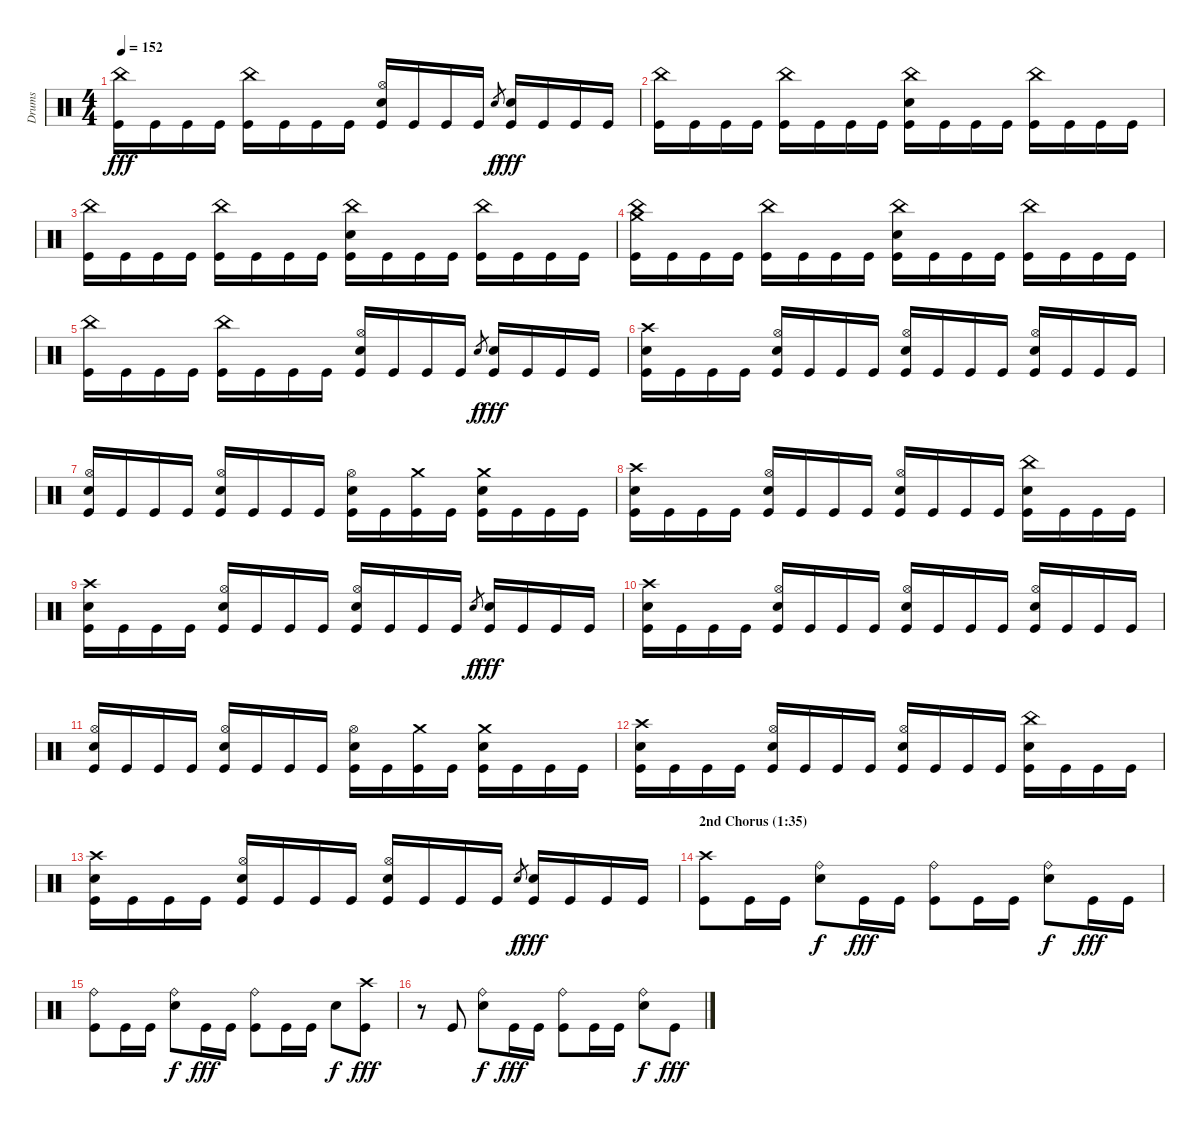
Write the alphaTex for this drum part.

\track ("Drums" "Drums") {instrument percussion}
\staff {score}
\articulation defaults
\ts (4 4)
\tempo 152
\clef neutral
\ks c
("China (hit)" "Kick (hit)").16{dy fff} "Kick (hit)".16 "Kick (hit)".16 "Kick (hit)".16 ("China (hit)" "Kick (hit)").16 "Kick (hit)".16 "Kick (hit)".16 "Kick (hit)".16 ("Hi-Hat (open)" "Snare (hit) 2" "Kick (hit)").16 "Kick (hit)".16 "Kick (hit)".16 "Kick (hit)".16 "Snare (hit) 2".8{gr dy f} ("Snare (hit) 2" "Kick (hit)").16{dy fff} "Kick (hit)".16 "Kick (hit)".16 "Kick (hit)".16 |
("China (hit)" "Kick (hit)").16 "Kick (hit)".16 "Kick (hit)".16 "Kick (hit)".16 ("China (hit)" "Kick (hit)").16 "Kick (hit)".16 "Kick (hit)".16 "Kick (hit)".16 ("China (hit)" "Snare (hit) 2" "Kick (hit)").16 "Kick (hit)".16 "Kick (hit)".16 "Kick (hit)".16 ("China (hit)" "Kick (hit)").16 "Kick (hit)".16 "Kick (hit)".16 "Kick (hit)".16 |
("China (hit)" "Kick (hit)").16 "Kick (hit)".16 "Kick (hit)".16 "Kick (hit)".16 ("China (hit)" "Kick (hit)").16 "Kick (hit)".16 "Kick (hit)".16 "Kick (hit)".16 ("China (hit)" "Snare (hit) 2" "Kick (hit)").16 "Kick (hit)".16 "Kick (hit)".16 "Kick (hit)".16 ("China (hit)" "Kick (hit)").16 "Kick (hit)".16 "Kick (hit)".16 "Kick (hit)".16 |
("China (hit)" "Crash medium (hit)" "Kick (hit)").16 "Kick (hit)".16 "Kick (hit)".16 "Kick (hit)".16 ("China (hit)" "Kick (hit)").16 "Kick (hit)".16 "Kick (hit)".16 "Kick (hit)".16 ("China (hit)" "Snare (hit) 2" "Kick (hit)").16 "Kick (hit)".16 "Kick (hit)".16 "Kick (hit)".16 ("China (hit)" "Kick (hit)").16 "Kick (hit)".16 "Kick (hit)".16 "Kick (hit)".16 |
("China (hit)" "Kick (hit)").16 "Kick (hit)".16 "Kick (hit)".16 "Kick (hit)".16 ("China (hit)" "Kick (hit)").16 "Kick (hit)".16 "Kick (hit)".16 "Kick (hit)".16 ("Hi-Hat (open)" "Snare (hit) 2" "Kick (hit)").16 "Kick (hit)".16 "Kick (hit)".16 "Kick (hit)".16 "Snare (hit) 2".8{gr dy f} ("Snare (hit) 2" "Kick (hit)").16{dy fff} "Kick (hit)".16 "Kick (hit)".16 "Kick (hit)".16 |
("Crash high (hit)" "Snare (hit) 2" "Kick (hit)").16 "Kick (hit)".16 "Kick (hit)".16 "Kick (hit)".16 ("Hi-Hat (open)" "Snare (hit) 2" "Kick (hit)").16 "Kick (hit)".16 "Kick (hit)".16 "Kick (hit)".16 ("Hi-Hat (open)" "Snare (hit) 2" "Kick (hit)").16 "Kick (hit)".16 "Kick (hit)".16 "Kick (hit)".16 ("Hi-Hat (open)" "Snare (hit) 2" "Kick (hit)").16 "Kick (hit)".16 "Kick (hit)".16 "Kick (hit)".16 |
("Hi-Hat (open)" "Snare (hit) 2" "Kick (hit)").16 "Kick (hit)".16 "Kick (hit)".16 "Kick (hit)".16 ("Hi-Hat (open)" "Snare (hit) 2" "Kick (hit)").16 "Kick (hit)".16 "Kick (hit)".16 "Kick (hit)".16 ("Hi-Hat (open)" "Snare (hit) 2" "Kick (hit)").16 "Kick (hit)".16 ("Crash medium (hit)" "Kick (hit)").16 "Kick (hit)".16 ("Crash medium (hit)" "Snare (hit) 2" "Kick (hit)").16 "Kick (hit)".16 "Kick (hit)".16 "Kick (hit)".16 |
("Crash high (hit)" "Snare (hit) 2" "Kick (hit)").16 "Kick (hit)".16 "Kick (hit)".16 "Kick (hit)".16 ("Hi-Hat (open)" "Snare (hit) 2" "Kick (hit)").16 "Kick (hit)".16 "Kick (hit)".16 "Kick (hit)".16 ("Hi-Hat (open)" "Snare (hit) 2" "Kick (hit)").16 "Kick (hit)".16 "Kick (hit)".16 "Kick (hit)".16 ("China (hit)" "Snare (hit) 2" "Kick (hit)").16 "Kick (hit)".16 "Kick (hit)".16 "Kick (hit)".16 |
("Crash high (hit)" "Snare (hit) 2" "Kick (hit)").16 "Kick (hit)".16 "Kick (hit)".16 "Kick (hit)".16 ("Hi-Hat (open)" "Snare (hit) 2" "Kick (hit)").16 "Kick (hit)".16 "Kick (hit)".16 "Kick (hit)".16 ("Hi-Hat (open)" "Snare (hit) 2" "Kick (hit)").16 "Kick (hit)".16 "Kick (hit)".16 "Kick (hit)".16 "Snare (hit) 2".8{gr dy f} ("Snare (hit) 2" "Kick (hit)").16{dy fff} "Kick (hit)".16 "Kick (hit)".16 "Kick (hit)".16 |
("Crash high (hit)" "Snare (hit) 2" "Kick (hit)").16 "Kick (hit)".16 "Kick (hit)".16 "Kick (hit)".16 ("Hi-Hat (open)" "Snare (hit) 2" "Kick (hit)").16 "Kick (hit)".16 "Kick (hit)".16 "Kick (hit)".16 ("Hi-Hat (open)" "Snare (hit) 2" "Kick (hit)").16 "Kick (hit)".16 "Kick (hit)".16 "Kick (hit)".16 ("Hi-Hat (open)" "Snare (hit) 2" "Kick (hit)").16 "Kick (hit)".16 "Kick (hit)".16 "Kick (hit)".16 |
("Hi-Hat (open)" "Snare (hit) 2" "Kick (hit)").16 "Kick (hit)".16 "Kick (hit)".16 "Kick (hit)".16 ("Hi-Hat (open)" "Snare (hit) 2" "Kick (hit)").16 "Kick (hit)".16 "Kick (hit)".16 "Kick (hit)".16 ("Hi-Hat (open)" "Snare (hit) 2" "Kick (hit)").16 "Kick (hit)".16 ("Crash medium (hit)" "Kick (hit)").16 "Kick (hit)".16 ("Crash medium (hit)" "Snare (hit) 2" "Kick (hit)").16 "Kick (hit)".16 "Kick (hit)".16 "Kick (hit)".16 |
("Crash high (hit)" "Snare (hit) 2" "Kick (hit)").16 "Kick (hit)".16 "Kick (hit)".16 "Kick (hit)".16 ("Hi-Hat (open)" "Snare (hit) 2" "Kick (hit)").16 "Kick (hit)".16 "Kick (hit)".16 "Kick (hit)".16 ("Hi-Hat (open)" "Snare (hit) 2" "Kick (hit)").16 "Kick (hit)".16 "Kick (hit)".16 "Kick (hit)".16 ("China (hit)" "Snare (hit) 2" "Kick (hit)").16 "Kick (hit)".16 "Kick (hit)".16 "Kick (hit)".16 |
("Crash high (hit)" "Snare (hit) 2" "Kick (hit)").16 "Kick (hit)".16 "Kick (hit)".16 "Kick (hit)".16 ("Hi-Hat (open)" "Snare (hit) 2" "Kick (hit)").16 "Kick (hit)".16 "Kick (hit)".16 "Kick (hit)".16 ("Hi-Hat (open)" "Snare (hit) 2" "Kick (hit)").16 "Kick (hit)".16 "Kick (hit)".16 "Kick (hit)".16 "Snare (hit) 2".8{gr dy f} ("Snare (hit) 2" "Kick (hit)").16{dy fff} "Kick (hit)".16 "Kick (hit)".16 "Kick (hit)".16 |
\section ("" "2nd Chorus (1:35)")
("Crash high (hit)" "Kick (hit)").8 "Kick (hit)".16 "Kick (hit)".16 ("Ride (bell)" "Snare (hit) 2").8{dy f} "Kick (hit)".16{dy fff} "Kick (hit)".16 ("Ride (bell)" "Kick (hit)").8 "Kick (hit)".16 "Kick (hit)".16 ("Ride (bell)" "Snare (hit) 2").8{dy f} "Kick (hit)".16{dy fff} "Kick (hit)".16 |
("Ride (bell)" "Kick (hit)").8 "Kick (hit)".16 "Kick (hit)".16 ("Ride (bell)" "Snare (hit) 2").8{dy f} "Kick (hit)".16{dy fff} "Kick (hit)".16 ("Ride (bell)" "Kick (hit)").8 "Kick (hit)".16 "Kick (hit)".16 "Snare (hit) 2".8{dy f} ("Crash high (hit)" "Kick (hit)").8{dy fff} |
r.8 "Kick (hit)".8 ("Ride (bell)" "Snare (hit) 2").8{dy f} "Kick (hit)".16{dy fff} "Kick (hit)".16 ("Ride (bell)" "Kick (hit)").8 "Kick (hit)".16 "Kick (hit)".16 ("Ride (bell)" "Snare (hit) 2").8{dy f} "Kick (hit)".8{dy fff}
